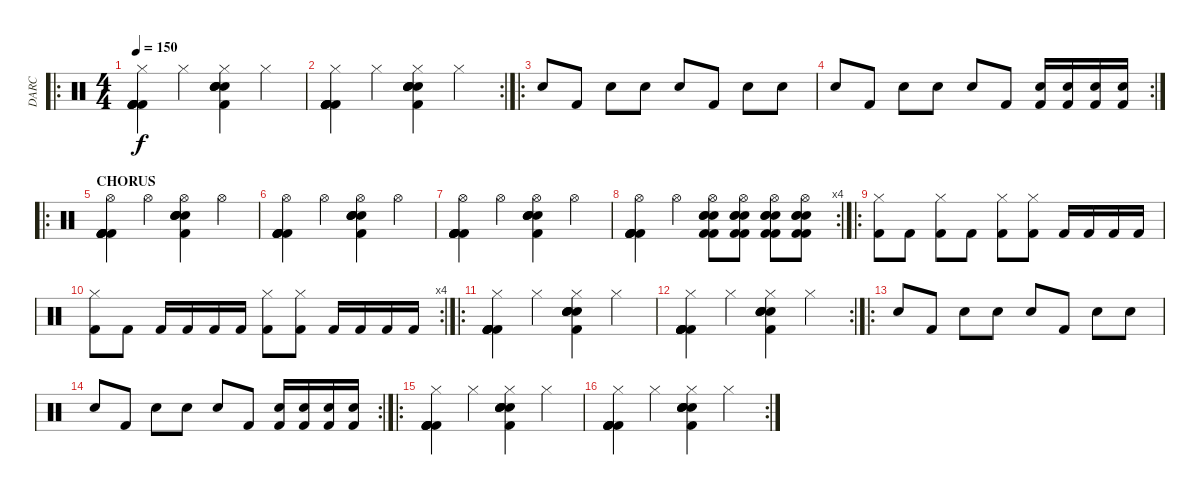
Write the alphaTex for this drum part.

\track ("DARC" "DARC") {instrument percussion}
\staff {score}
\articulation defaults
\ro
\ts (4 4)
\tempo 150
\clef neutral
\ks c
("Hi-Hat (closed)" "Kick (hit) 2" "Kick (hit) 2" "Kick (hit) 2" "Kick (hit) 2" "Kick (hit) 2").4{dy f} "Hi-Hat (closed)".4 ("Hi-Hat (closed)" "Electric Snare (hit)" "Electric Snare (hit)" "Electric Snare (hit)" "Electric Snare (hit)" "Kick (hit) 2").4 "Hi-Hat (closed)".4 |
\rc 2
("Hi-Hat (closed)" "Kick (hit) 2" "Kick (hit) 2" "Kick (hit) 2" "Kick (hit) 2" "Kick (hit) 2").4 "Hi-Hat (closed)".4 ("Hi-Hat (closed)" "Electric Snare (hit)" "Electric Snare (hit)" "Electric Snare (hit)" "Electric Snare (hit)" "Kick (hit) 2").4 "Hi-Hat (closed)".4 |
\ro "Electric Snare (hit)".8 "Kick (hit) 2".8 "Electric Snare (hit)".8 "Electric Snare (hit)".8 "Electric Snare (hit)".8 "Kick (hit) 2".8 "Electric Snare (hit)".8 "Electric Snare (hit)".8
|
\rc 2 "Electric Snare (hit)".8 "Kick (hit) 2".8 "Electric Snare (hit)".8 "Electric Snare (hit)".8 "Electric Snare (hit)".8 "Kick (hit) 2".8
("Kick (hit) 2" "Electric Snare (hit)").16 ("Kick (hit) 2" "Electric Snare (hit)").16 ("Kick (hit) 2" "Electric Snare (hit)").16 ("Kick (hit) 2" "Electric Snare (hit)").16 |
\ro
\section ("" "CHORUS")
("Hi-Hat (open)" "Kick (hit) 2" "Kick (hit) 2" "Kick (hit) 2" "Kick (hit) 2" "Kick (hit) 2").4 "Hi-Hat (open)".4 ("Hi-Hat (open)" "Electric Snare (hit)" "Electric Snare (hit)" "Electric Snare (hit)" "Electric Snare (hit)" "Kick (hit) 2").4 "Hi-Hat (open)".4 |
("Hi-Hat (open)" "Kick (hit) 2" "Kick (hit) 2" "Kick (hit) 2" "Kick (hit) 2" "Kick (hit) 2").4 "Hi-Hat (open)".4 ("Hi-Hat (open)" "Electric Snare (hit)" "Electric Snare (hit)" "Electric Snare (hit)" "Electric Snare (hit)" "Kick (hit) 2").4 "Hi-Hat (open)".4 |
("Hi-Hat (open)" "Kick (hit) 2" "Kick (hit) 2" "Kick (hit) 2" "Kick (hit) 2" "Kick (hit) 2").4 "Hi-Hat (open)".4 ("Hi-Hat (open)" "Electric Snare (hit)" "Electric Snare (hit)" "Electric Snare (hit)" "Electric Snare (hit)" "Kick (hit) 2").4 "Hi-Hat (open)".4 |
\rc 4
("Hi-Hat (open)" "Kick (hit) 2" "Kick (hit) 2" "Kick (hit) 2" "Kick (hit) 2" "Kick (hit) 2").4 "Hi-Hat (open)".4 ("Hi-Hat (open)" "Electric Snare (hit)" "Electric Snare (hit)" "Electric Snare (hit)" "Kick (hit) 2" "Kick (hit) 2").8 ("Hi-Hat (open)" "Electric Snare (hit)" "Electric Snare (hit)" "Electric Snare (hit)" "Kick (hit) 2" "Kick (hit) 2").8 ("Hi-Hat (open)" "Electric Snare (hit)" "Electric Snare (hit)" "Electric Snare (hit)" "Kick (hit) 2" "Kick (hit) 2").8 ("Hi-Hat (open)" "Electric Snare (hit)" "Electric Snare (hit)" "Electric Snare (hit)" "Kick (hit) 2" "Kick (hit) 2").8 |
\ro
("Hi-Hat (closed)" "Kick (hit) 2").8 "Kick (hit) 2".8 ("Hi-Hat (closed)" "Kick (hit) 2").8 "Kick (hit) 2".8 ("Hi-Hat (closed)" "Kick (hit) 2").8 ("Hi-Hat (closed)" "Kick (hit) 2").8 "Kick (hit) 2".16 "Kick (hit) 2".16 "Kick (hit) 2".16 "Kick (hit) 2".16 |
\rc 4
("Hi-Hat (closed)" "Kick (hit) 2").8 "Kick (hit) 2".8 "Kick (hit) 2".16 "Kick (hit) 2".16 "Kick (hit) 2".16 "Kick (hit) 2".16 ("Hi-Hat (closed)" "Kick (hit) 2").8 ("Hi-Hat (closed)" "Kick (hit) 2").8 "Kick (hit) 2".16 "Kick (hit) 2".16 "Kick (hit) 2".16 "Kick (hit) 2".16 |
\ro
("Hi-Hat (closed)" "Kick (hit) 2" "Kick (hit) 2" "Kick (hit) 2" "Kick (hit) 2" "Kick (hit) 2").4 "Hi-Hat (closed)".4 ("Hi-Hat (closed)" "Electric Snare (hit)" "Electric Snare (hit)" "Electric Snare (hit)" "Electric Snare (hit)" "Kick (hit) 2").4 "Hi-Hat (closed)".4 |
\rc 2
("Hi-Hat (closed)" "Kick (hit) 2" "Kick (hit) 2" "Kick (hit) 2" "Kick (hit) 2" "Kick (hit) 2").4 "Hi-Hat (closed)".4 ("Hi-Hat (closed)" "Electric Snare (hit)" "Electric Snare (hit)" "Electric Snare (hit)" "Electric Snare (hit)" "Kick (hit) 2").4 "Hi-Hat (closed)".4 |
\ro "Electric Snare (hit)".8 "Kick (hit) 2".8 "Electric Snare (hit)".8 "Electric Snare (hit)".8 "Electric Snare (hit)".8 "Kick (hit) 2".8 "Electric Snare (hit)".8 "Electric Snare (hit)".8
|
\rc 2 "Electric Snare (hit)".8 "Kick (hit) 2".8 "Electric Snare (hit)".8 "Electric Snare (hit)".8 "Electric Snare (hit)".8 "Kick (hit) 2".8
("Kick (hit) 2" "Electric Snare (hit)").16 ("Kick (hit) 2" "Electric Snare (hit)").16 ("Kick (hit) 2" "Electric Snare (hit)").16 ("Kick (hit) 2" "Electric Snare (hit)").16 |
\ro
("Hi-Hat (closed)" "Kick (hit) 2" "Kick (hit) 2" "Kick (hit) 2" "Kick (hit) 2" "Kick (hit) 2").4 "Hi-Hat (closed)".4 ("Hi-Hat (closed)" "Electric Snare (hit)" "Electric Snare (hit)" "Electric Snare (hit)" "Electric Snare (hit)" "Kick (hit) 2").4 "Hi-Hat (closed)".4 |
\rc 2
("Hi-Hat (closed)" "Kick (hit) 2" "Kick (hit) 2" "Kick (hit) 2" "Kick (hit) 2" "Kick (hit) 2").4 "Hi-Hat (closed)".4 ("Hi-Hat (closed)" "Electric Snare (hit)" "Electric Snare (hit)" "Electric Snare (hit)" "Electric Snare (hit)" "Kick (hit) 2").4 "Hi-Hat (closed)".4
